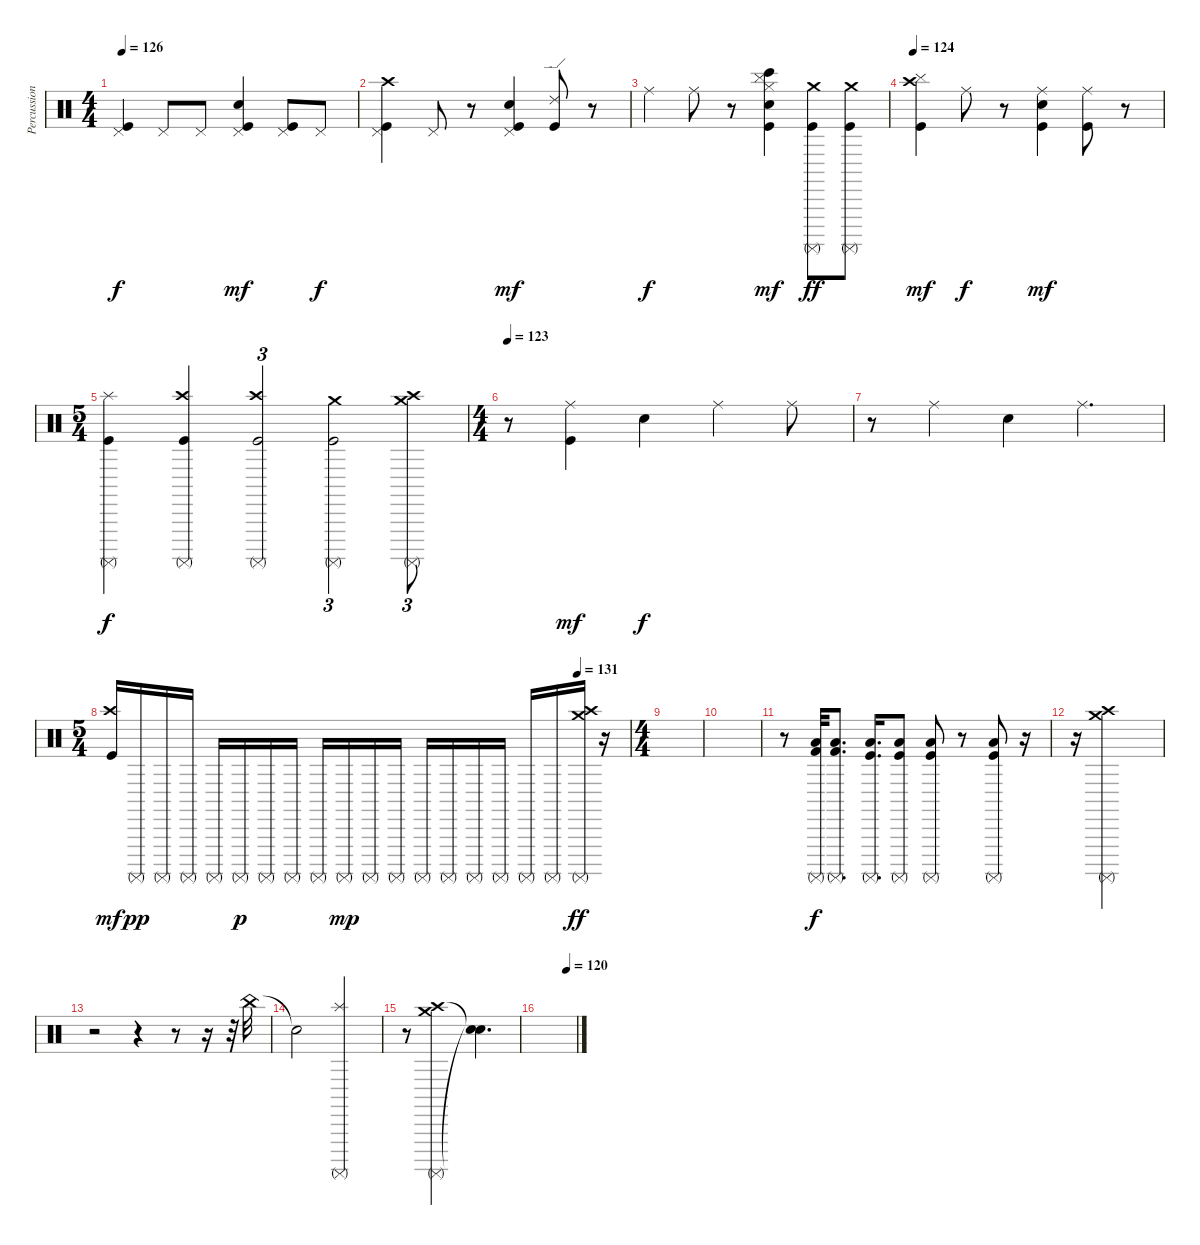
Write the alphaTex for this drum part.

\track ("Percussion" "Percussion") {instrument percussion}
\staff {score}
\articulation defaults
\ts (4 4)
\tempo 126
\clef neutral
\ks c
("Pedal Hi-Hat (hit)" "Kick (hit)").4{dy f} "Pedal Hi-Hat (hit)".8 "Pedal Hi-Hat (hit)".8 ("Pedal Hi-Hat (hit)" "Kick (hit)" "Electric Snare (hit)").4{dy mf} ("Pedal Hi-Hat (hit)" "Kick (hit)").8 "Pedal Hi-Hat (hit)".8{dy f} |
("Pedal Hi-Hat (hit)" "Kick (hit)" "Crash high (hit)").4 "Pedal Hi-Hat (hit)".8 r.8 ("Pedal Hi-Hat (hit)" "Kick (hit)" "Electric Snare (hit)").4{dy mf} ("Ride (edge) 2" "Kick (hit)").8 r.8 |
"Ride (middle)".4{dy f} "Ride (middle)".8 r.8 ("Bongo High (hit)" "Cymbal (hit)" "Hi-Hat (closed)" "Kick (hit)" "Electric Snare (hit)").4{dy mf} ("Kick (hit)" "Surdo (mute)" "Crash medium (hit)").8{dy ff} ("Kick (hit)" "Surdo (mute)" "Crash medium (hit)").8 |
\tempo 124
("Cymbal (hit)" "Kick (hit)" "Crash high (hit)").4{dy mf} "Ride (middle)".8{dy f} r.8 ("Ride (middle)" "Kick (hit)" "Electric Snare (hit)").4{dy mf} ("Ride (middle)" "Kick (hit)").8 r.8 |
\ts (5 4)
("Splash (hit)" "Kick (hit)" "Surdo (mute)").4{dy f} ("Crash high (hit)" "Kick (hit)" "Surdo (mute)").4 ("Crash high (hit)" "Kick (hit)" "Surdo (mute)").2{tu (3 2)} ("Crash medium (hit)" "Kick (hit)" "Surdo (mute)").2{tu (3 2)} ("Crash medium (hit)" "Crash high (hit)" "Surdo (mute)").8{tu (3 2)} |
\ts (4 4)
\tempo 123
r.8 ("Ride (middle)" "Kick (hit)").4{dy mf} "Electric Snare (hit)".4{dy f} "Ride (middle)".4 "Ride (middle)".8 |
r.8 "Ride (middle)".4 "Electric Snare (hit)".4 "Ride (middle)".4{d} |
\ts (5 4)
\tempo (131 0.9)
("Kick (hit)" "Crash high (hit)").16{dy mf} "Surdo (mute)".16{dy pp} "Surdo (mute)".16 "Surdo (mute)".16 "Surdo (mute)".16 "Surdo (mute)".16{dy p} "Surdo (mute)".16 "Surdo (mute)".16 "Surdo (mute)".16 "Surdo (mute)".16{dy mp} "Surdo (mute)".16 "Surdo (mute)".16 "Surdo (mute)".16 "Surdo (mute)".16 "Surdo (mute)".16 "Surdo (mute)".16 "Surdo (mute)".16 "Surdo (mute)".16 ("Surdo (mute)" "Crash high (hit)" "Crash medium (hit)").16{dy ff} r.16 |
\ts (4 4)
|
|
r.8 ("Surdo (mute)" "Low Floor Tom (hit)" "Kick (hit) 2").32{dy f} ("Surdo (mute)" "Low Floor Tom (hit)" "Kick (hit) 2").8{d} ("Surdo (mute)" "Low Floor Tom (hit)" "Kick (hit)").16{d} ("Surdo (mute)" "Low Floor Tom (hit)" "Kick (hit)").8 ("Surdo (mute)" "Low Floor Tom (hit)" "Kick (hit)").8 r.8 ("Surdo (mute)" "Low Floor Tom (hit)" "Kick (hit)").8 r.16 |
r.16 ("Surdo (mute)" "Crash high (hit)" "Crash medium (hit)").2 |
r.2 r.4 r.8 r.16 r.32 "China (hit)".32 |
"Snare (hit)"{t}.2 ("Surdo (mute)" "Splash (hit)").2 |
r.8 ("Surdo (mute)" "Crash high (hit)" "Crash medium (hit)").2 ("Snare (hit)"{t} "Snare (hit)"{t}).4{d} |
\tempo (120 0.75)
